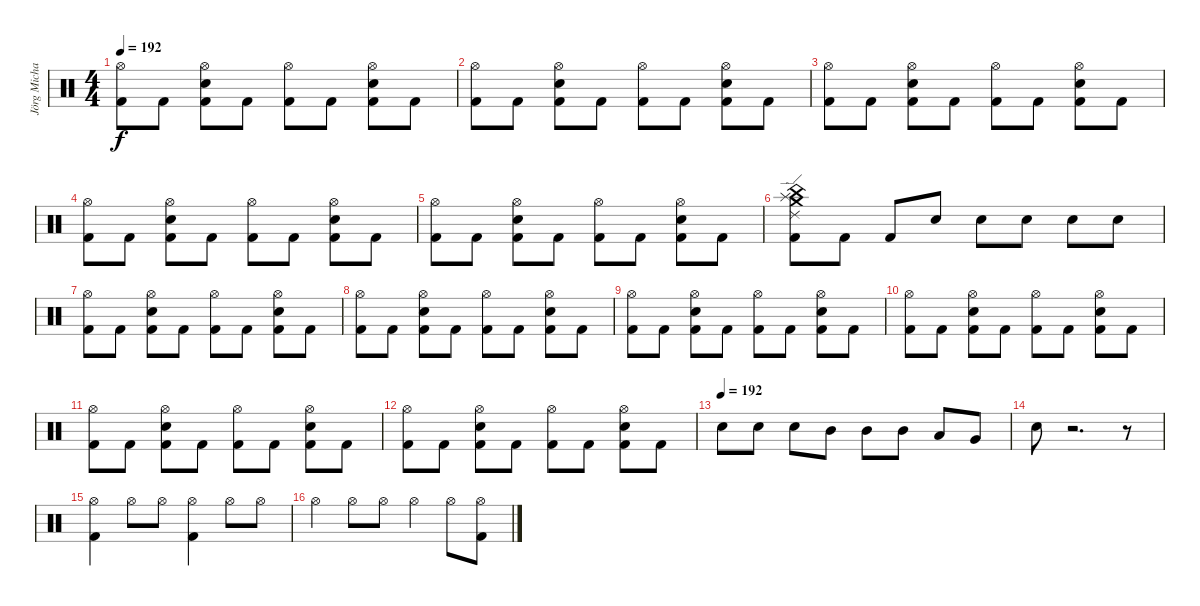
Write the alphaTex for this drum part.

\track ("Jörg Michael" "Jörg Micha") {instrument percussion}
\staff {score}
\articulation defaults
\ts (4 4)
\tempo 192
\clef neutral
\ks c
("Hi-Hat (open)" "Kick (hit) 2").8{dy f} "Kick (hit) 2".8 ("Electric Snare (hit)" "Hi-Hat (open)" "Kick (hit) 2").8 "Kick (hit) 2".8 ("Hi-Hat (open)" "Kick (hit) 2").8 "Kick (hit) 2".8 ("Electric Snare (hit)" "Hi-Hat (open)" "Kick (hit) 2").8 "Kick (hit) 2".8 |
("Hi-Hat (open)" "Kick (hit) 2").8 "Kick (hit) 2".8 ("Electric Snare (hit)" "Hi-Hat (open)" "Kick (hit) 2").8 "Kick (hit) 2".8 ("Hi-Hat (open)" "Kick (hit) 2").8 "Kick (hit) 2".8 ("Electric Snare (hit)" "Hi-Hat (open)" "Kick (hit) 2").8 "Kick (hit) 2".8 |
("Hi-Hat (open)" "Kick (hit) 2").8 "Kick (hit) 2".8 ("Electric Snare (hit)" "Hi-Hat (open)" "Kick (hit) 2").8 "Kick (hit) 2".8 ("Hi-Hat (open)" "Kick (hit) 2").8 "Kick (hit) 2".8 ("Electric Snare (hit)" "Hi-Hat (open)" "Kick (hit) 2").8 "Kick (hit) 2".8 |
("Hi-Hat (open)" "Kick (hit) 2").8 "Kick (hit) 2".8 ("Electric Snare (hit)" "Hi-Hat (open)" "Kick (hit) 2").8 "Kick (hit) 2".8 ("Hi-Hat (open)" "Kick (hit) 2").8 "Kick (hit) 2".8 ("Electric Snare (hit)" "Hi-Hat (open)" "Kick (hit) 2").8 "Kick (hit) 2".8 |
("Hi-Hat (open)" "Kick (hit) 2").8 "Kick (hit) 2".8 ("Electric Snare (hit)" "Hi-Hat (open)" "Kick (hit) 2").8 "Kick (hit) 2".8 ("Hi-Hat (open)" "Kick (hit) 2").8 "Kick (hit) 2".8 ("Electric Snare (hit)" "Hi-Hat (open)" "Kick (hit) 2").8 "Kick (hit) 2".8 |
("Ride (edge) 2" "Crash medium (hit)" "Splash (hit)" "China (hit)" "Kick (hit) 2").8 "Kick (hit) 2".8 "Kick (hit) 2".8 "Electric Snare (hit)".8{volume 6} "Electric Snare (hit)".8{volume 7} "Electric Snare (hit)".8{volume 8} "Electric Snare (hit)".8{volume 9} "Electric Snare (hit)".8{volume 10} |
("Hi-Hat (open)" "Kick (hit) 2").8{volume 11} "Kick (hit) 2".8 ("Electric Snare (hit)" "Hi-Hat (open)" "Kick (hit) 2").8 "Kick (hit) 2".8 ("Hi-Hat (open)" "Kick (hit) 2").8 "Kick (hit) 2".8 ("Electric Snare (hit)" "Hi-Hat (open)" "Kick (hit) 2").8 "Kick (hit) 2".8 |
("Hi-Hat (open)" "Kick (hit) 2").8 "Kick (hit) 2".8 ("Electric Snare (hit)" "Hi-Hat (open)" "Kick (hit) 2").8 "Kick (hit) 2".8 ("Hi-Hat (open)" "Kick (hit) 2").8 "Kick (hit) 2".8 ("Electric Snare (hit)" "Hi-Hat (open)" "Kick (hit) 2").8 "Kick (hit) 2".8 |
("Hi-Hat (open)" "Kick (hit) 2").8 "Kick (hit) 2".8 ("Electric Snare (hit)" "Hi-Hat (open)" "Kick (hit) 2").8 "Kick (hit) 2".8 ("Hi-Hat (open)" "Kick (hit) 2").8 "Kick (hit) 2".8 ("Electric Snare (hit)" "Hi-Hat (open)" "Kick (hit) 2").8 "Kick (hit) 2".8 |
("Hi-Hat (open)" "Kick (hit) 2").8 "Kick (hit) 2".8 ("Electric Snare (hit)" "Hi-Hat (open)" "Kick (hit) 2").8 "Kick (hit) 2".8 ("Hi-Hat (open)" "Kick (hit) 2").8 "Kick (hit) 2".8 ("Electric Snare (hit)" "Hi-Hat (open)" "Kick (hit) 2").8 "Kick (hit) 2".8 |
("Hi-Hat (open)" "Kick (hit) 2").8 "Kick (hit) 2".8 ("Electric Snare (hit)" "Hi-Hat (open)" "Kick (hit) 2").8 "Kick (hit) 2".8 ("Hi-Hat (open)" "Kick (hit) 2").8 "Kick (hit) 2".8 ("Electric Snare (hit)" "Hi-Hat (open)" "Kick (hit) 2").8 "Kick (hit) 2".8 |
("Hi-Hat (open)" "Kick (hit) 2").8 "Kick (hit) 2".8 ("Electric Snare (hit)" "Hi-Hat (open)" "Kick (hit) 2").8 "Kick (hit) 2".8 ("Hi-Hat (open)" "Kick (hit) 2").8 "Kick (hit) 2".8 ("Electric Snare (hit)" "Hi-Hat (open)" "Kick (hit) 2").8 "Kick (hit) 2".8 |
\tempo (192)
"Electric Snare (hit)".8 "Electric Snare (hit)".8 "Electric Snare (hit)".8 "Mid Tom (hit)".8 "Mid Tom (hit)".8 "Mid Tom (hit)".8 "Low Tom (hit)".8 "Very Low Tom (hit)".8 |
"Electric Snare (hit)".8 r.2{d} r.8 |
("Kick (hit) 2" "Hi-Hat (open)").4 "Hi-Hat (open)".8 "Hi-Hat (open)".8 ("Kick (hit) 2" "Hi-Hat (open)").4 "Hi-Hat (open)".8 "Hi-Hat (open)".8 |
"Hi-Hat (open)".4 "Hi-Hat (open)".8 "Hi-Hat (open)".8 "Hi-Hat (open)".4 "Hi-Hat (open)".8 ("Kick (hit) 2" "Hi-Hat (open)").8
